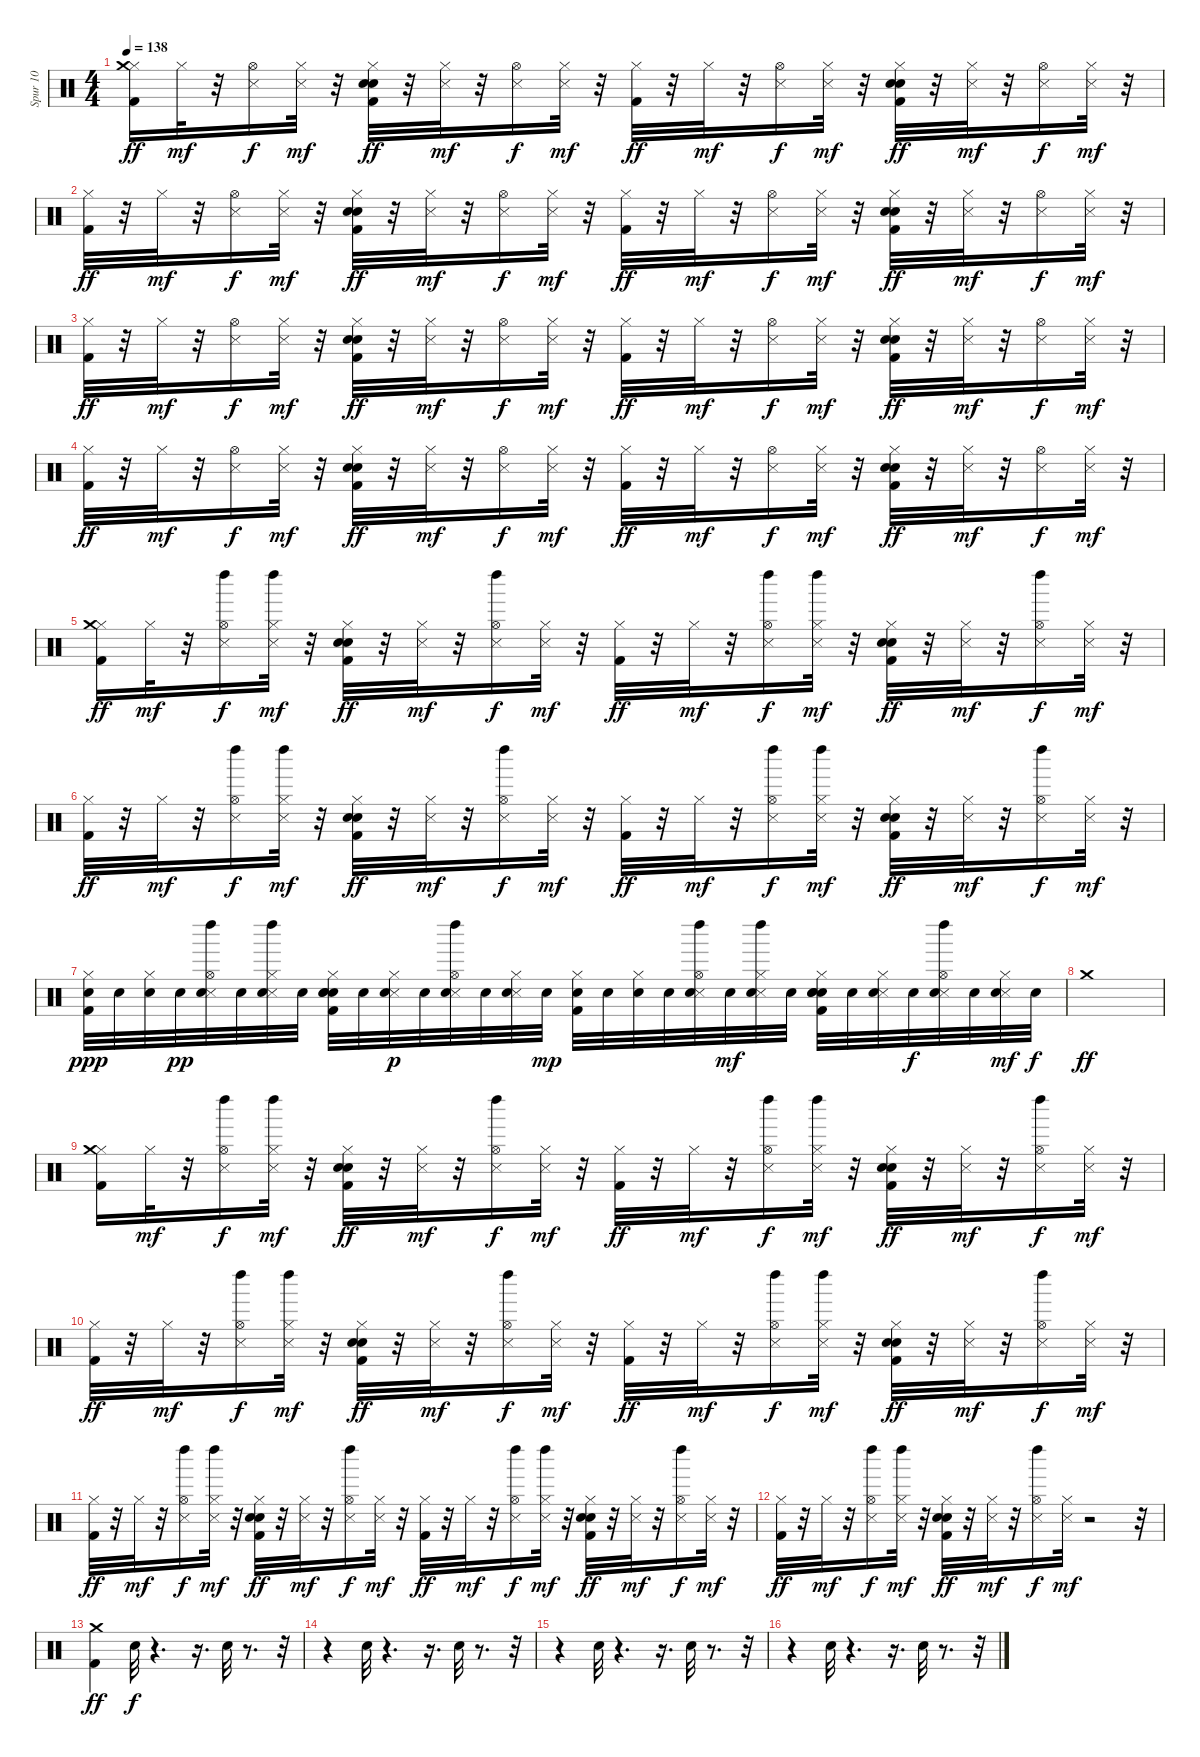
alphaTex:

\track ("Spur 10" "Spur 10") {instrument percussion}
\staff {score}
\articulation defaults
\ts (4 4)
\tempo 138
\clef neutral
\ks c
("Hi-Hat (closed)" "Crash medium (hit)" "Kick (hit) 2").16{dy ff} "Hi-Hat (closed)".32{dy mf} r.32 ("Snare (side stick) 3" "Hi-Hat (open)").16{dy f} ("Hi-Hat (closed)" "Snare (side stick) 3").32{dy mf} r.32 ("Hand Clap (hit)" "Hi-Hat (closed)" "Kick (hit) 2" "Electric Snare (hit)").32{dy ff} r.32 ("Hi-Hat (closed)" "Snare (side stick) 3").32{dy mf} r.32 ("Snare (side stick) 3" "Hi-Hat (open)").16{dy f} ("Hi-Hat (closed)" "Snare (side stick) 3").32{dy mf} r.32 ("Hi-Hat (closed)" "Kick (hit) 2").32{dy ff} r.32 "Hi-Hat (closed)".32{dy mf} r.32 ("Snare (side stick) 3" "Hi-Hat (open)").16{dy f} ("Hi-Hat (closed)" "Snare (side stick) 3").32{dy mf} r.32 ("Hand Clap (hit)" "Hi-Hat (closed)" "Kick (hit) 2" "Electric Snare (hit)").32{dy ff} r.32 ("Hi-Hat (closed)" "Snare (side stick) 3").32{dy mf} r.32 ("Snare (side stick) 3" "Hi-Hat (open)").16{dy f} ("Hi-Hat (closed)" "Snare (side stick) 3").32{dy mf} r.32 |
("Hi-Hat (closed)" "Kick (hit) 2").32{dy ff} r.32 "Hi-Hat (closed)".32{dy mf} r.32 ("Snare (side stick) 3" "Hi-Hat (open)").16{dy f} ("Hi-Hat (closed)" "Snare (side stick) 3").32{dy mf} r.32 ("Hand Clap (hit)" "Hi-Hat (closed)" "Kick (hit) 2" "Electric Snare (hit)").32{dy ff} r.32 ("Hi-Hat (closed)" "Snare (side stick) 3").32{dy mf} r.32 ("Snare (side stick) 3" "Hi-Hat (open)").16{dy f} ("Hi-Hat (closed)" "Snare (side stick) 3").32{dy mf} r.32 ("Hi-Hat (closed)" "Kick (hit) 2").32{dy ff} r.32 "Hi-Hat (closed)".32{dy mf} r.32 ("Snare (side stick) 3" "Hi-Hat (open)").16{dy f} ("Hi-Hat (closed)" "Snare (side stick) 3").32{dy mf} r.32 ("Hand Clap (hit)" "Hi-Hat (closed)" "Kick (hit) 2" "Electric Snare (hit)").32{dy ff} r.32 ("Hi-Hat (closed)" "Snare (side stick) 3").32{dy mf} r.32 ("Snare (side stick) 3" "Hi-Hat (open)").16{dy f} ("Hi-Hat (closed)" "Snare (side stick) 3").32{dy mf} r.32 |
("Hi-Hat (closed)" "Kick (hit) 2").32{dy ff} r.32 "Hi-Hat (closed)".32{dy mf} r.32 ("Snare (side stick) 3" "Hi-Hat (open)").16{dy f} ("Hi-Hat (closed)" "Snare (side stick) 3").32{dy mf} r.32 ("Hand Clap (hit)" "Hi-Hat (closed)" "Kick (hit) 2" "Electric Snare (hit)").32{dy ff} r.32 ("Hi-Hat (closed)" "Snare (side stick) 3").32{dy mf} r.32 ("Snare (side stick) 3" "Hi-Hat (open)").16{dy f} ("Hi-Hat (closed)" "Snare (side stick) 3").32{dy mf} r.32 ("Hi-Hat (closed)" "Kick (hit) 2").32{dy ff} r.32 "Hi-Hat (closed)".32{dy mf} r.32 ("Snare (side stick) 3" "Hi-Hat (open)").16{dy f} ("Hi-Hat (closed)" "Snare (side stick) 3").32{dy mf} r.32 ("Hand Clap (hit)" "Hi-Hat (closed)" "Kick (hit) 2" "Electric Snare (hit)").32{dy ff} r.32 ("Hi-Hat (closed)" "Snare (side stick) 3").32{dy mf} r.32 ("Snare (side stick) 3" "Hi-Hat (open)").16{dy f} ("Hi-Hat (closed)" "Snare (side stick) 3").32{dy mf} r.32 |
("Hi-Hat (closed)" "Kick (hit) 2").32{dy ff} r.32 "Hi-Hat (closed)".32{dy mf} r.32 ("Snare (side stick) 3" "Hi-Hat (open)").16{dy f} ("Hi-Hat (closed)" "Snare (side stick) 3").32{dy mf} r.32 ("Hand Clap (hit)" "Hi-Hat (closed)" "Kick (hit) 2" "Electric Snare (hit)").32{dy ff} r.32 ("Hi-Hat (closed)" "Snare (side stick) 3").32{dy mf} r.32 ("Snare (side stick) 3" "Hi-Hat (open)").16{dy f} ("Hi-Hat (closed)" "Snare (side stick) 3").32{dy mf} r.32 ("Hi-Hat (closed)" "Kick (hit) 2").32{dy ff} r.32 "Hi-Hat (closed)".32{dy mf} r.32 ("Snare (side stick) 3" "Hi-Hat (open)").16{dy f} ("Hi-Hat (closed)" "Snare (side stick) 3").32{dy mf} r.32 ("Hand Clap (hit)" "Hi-Hat (closed)" "Kick (hit) 2" "Electric Snare (hit)").32{dy ff} r.32 ("Hi-Hat (closed)" "Snare (side stick) 3").32{dy mf} r.32 ("Snare (side stick) 3" "Hi-Hat (open)").16{dy f} ("Hi-Hat (closed)" "Snare (side stick) 3").32{dy mf} r.32 |
("Hi-Hat (closed)" "Crash medium (hit)" "Kick (hit) 2").16{dy ff} "Hi-Hat (closed)".32{dy mf} r.32 ("Snare (side stick) 3" "Hi-Hat (open)" "Left Maraca (hit)").16{dy f} ("Hi-Hat (closed)" "Snare (side stick) 3" "Left Maraca (hit)").32{dy mf} r.32 ("Hand Clap (hit)" "Hi-Hat (closed)" "Kick (hit) 2" "Electric Snare (hit)").32{dy ff} r.32 ("Hi-Hat (closed)" "Snare (side stick) 3").32{dy mf} r.32 ("Snare (side stick) 3" "Hi-Hat (open)" "Left Maraca (hit)").16{dy f} ("Hi-Hat (closed)" "Snare (side stick) 3").32{dy mf} r.32 ("Hi-Hat (closed)" "Kick (hit) 2").32{dy ff} r.32 "Hi-Hat (closed)".32{dy mf} r.32 ("Snare (side stick) 3" "Hi-Hat (open)" "Left Maraca (hit)").16{dy f} ("Hi-Hat (closed)" "Snare (side stick) 3" "Left Maraca (hit)").32{dy mf} r.32 ("Hand Clap (hit)" "Hi-Hat (closed)" "Kick (hit) 2" "Electric Snare (hit)").32{dy ff} r.32 ("Hi-Hat (closed)" "Snare (side stick) 3").32{dy mf} r.32 ("Snare (side stick) 3" "Hi-Hat (open)" "Left Maraca (hit)").16{dy f} ("Hi-Hat (closed)" "Snare (side stick) 3").32{dy mf} r.32 |
("Hi-Hat (closed)" "Kick (hit) 2").32{dy ff} r.32 "Hi-Hat (closed)".32{dy mf} r.32 ("Snare (side stick) 3" "Hi-Hat (open)" "Left Maraca (hit)").16{dy f} ("Hi-Hat (closed)" "Snare (side stick) 3" "Left Maraca (hit)").32{dy mf} r.32 ("Hand Clap (hit)" "Hi-Hat (closed)" "Kick (hit) 2" "Electric Snare (hit)").32{dy ff} r.32 ("Hi-Hat (closed)" "Snare (side stick) 3").32{dy mf} r.32 ("Snare (side stick) 3" "Hi-Hat (open)" "Left Maraca (hit)").16{dy f} ("Hi-Hat (closed)" "Snare (side stick) 3").32{dy mf} r.32 ("Hi-Hat (closed)" "Kick (hit) 2").32{dy ff} r.32 "Hi-Hat (closed)".32{dy mf} r.32 ("Snare (side stick) 3" "Hi-Hat (open)" "Left Maraca (hit)").16{dy f} ("Hi-Hat (closed)" "Snare (side stick) 3" "Left Maraca (hit)").32{dy mf} r.32 ("Hand Clap (hit)" "Hi-Hat (closed)" "Kick (hit) 2" "Electric Snare (hit)").32{dy ff} r.32 ("Hi-Hat (closed)" "Snare (side stick) 3").32{dy mf} r.32 ("Snare (side stick) 3" "Hi-Hat (open)" "Left Maraca (hit)").16{dy f} ("Hi-Hat (closed)" "Snare (side stick) 3").32{dy mf} r.32 |
("Hi-Hat (closed)" "Kick (hit) 2" "Electric Snare (hit)").32{dy ppp} "Electric Snare (hit)".32 ("Hi-Hat (closed)" "Electric Snare (hit)").32 "Electric Snare (hit)".32{dy pp} ("Snare (side stick) 3" "Electric Snare (hit)" "Hi-Hat (open)" "Left Maraca (hit)").32 "Electric Snare (hit)".32 ("Hi-Hat (closed)" "Snare (side stick) 3" "Electric Snare (hit)" "Left Maraca (hit)").32 "Electric Snare (hit)".32 ("Hand Clap (hit)" "Hi-Hat (closed)" "Kick (hit) 2" "Electric Snare (hit)" "Electric Snare (hit)").32 "Electric Snare (hit)".32 ("Hi-Hat (closed)" "Snare (side stick) 3" "Electric Snare (hit)").32{dy p} "Electric Snare (hit)".32 ("Snare (side stick) 3" "Electric Snare (hit)" "Hi-Hat (open)" "Left Maraca (hit)").32 "Electric Snare (hit)".32 ("Hi-Hat (closed)" "Snare (side stick) 3" "Electric Snare (hit)").32 "Electric Snare (hit)".32{dy mp} ("Hi-Hat (closed)" "Kick (hit) 2" "Electric Snare (hit)").32 "Electric Snare (hit)".32 ("Hi-Hat (closed)" "Electric Snare (hit)").32 "Electric Snare (hit)".32 ("Snare (side stick) 3" "Electric Snare (hit)" "Hi-Hat (open)" "Left Maraca (hit)").32 "Electric Snare (hit)".32{dy mf} ("Hi-Hat (closed)" "Snare (side stick) 3" "Electric Snare (hit)" "Left Maraca (hit)").32 "Electric Snare (hit)".32 ("Hand Clap (hit)" "Hi-Hat (closed)" "Kick (hit) 2" "Electric Snare (hit)" "Electric Snare (hit)").32 "Electric Snare (hit)".32 ("Hi-Hat (closed)" "Snare (side stick) 3" "Electric Snare (hit)").32 "Electric Snare (hit)".32{dy f} ("Snare (side stick) 3" "Electric Snare (hit)" "Hi-Hat (open)" "Left Maraca (hit)").32 "Electric Snare (hit)".32 ("Hi-Hat (closed)" "Snare (side stick) 3" "Electric Snare (hit)").32{dy mf} "Electric Snare (hit)".32{dy f} |
"Crash medium (hit)".1{dy ff} |
("Hi-Hat (closed)" "Crash medium (hit)" "Kick (hit) 2").16 "Hi-Hat (closed)".32{dy mf} r.32 ("Snare (side stick) 3" "Hi-Hat (open)" "Left Maraca (hit)").16{dy f} ("Hi-Hat (closed)" "Snare (side stick) 3" "Left Maraca (hit)").32{dy mf} r.32 ("Hand Clap (hit)" "Hi-Hat (closed)" "Kick (hit) 2" "Electric Snare (hit)").32{dy ff} r.32 ("Hi-Hat (closed)" "Snare (side stick) 3").32{dy mf} r.32 ("Snare (side stick) 3" "Hi-Hat (open)" "Left Maraca (hit)").16{dy f} ("Hi-Hat (closed)" "Snare (side stick) 3").32{dy mf} r.32 ("Hi-Hat (closed)" "Kick (hit) 2").32{dy ff} r.32 "Hi-Hat (closed)".32{dy mf} r.32 ("Snare (side stick) 3" "Hi-Hat (open)" "Left Maraca (hit)").16{dy f} ("Hi-Hat (closed)" "Snare (side stick) 3" "Left Maraca (hit)").32{dy mf} r.32 ("Hand Clap (hit)" "Hi-Hat (closed)" "Kick (hit) 2" "Electric Snare (hit)").32{dy ff} r.32 ("Hi-Hat (closed)" "Snare (side stick) 3").32{dy mf} r.32 ("Snare (side stick) 3" "Hi-Hat (open)" "Left Maraca (hit)").16{dy f} ("Hi-Hat (closed)" "Snare (side stick) 3").32{dy mf} r.32 |
("Hi-Hat (closed)" "Kick (hit) 2").32{dy ff} r.32 "Hi-Hat (closed)".32{dy mf} r.32 ("Snare (side stick) 3" "Hi-Hat (open)" "Left Maraca (hit)").16{dy f} ("Hi-Hat (closed)" "Snare (side stick) 3" "Left Maraca (hit)").32{dy mf} r.32 ("Hand Clap (hit)" "Hi-Hat (closed)" "Kick (hit) 2" "Electric Snare (hit)").32{dy ff} r.32 ("Hi-Hat (closed)" "Snare (side stick) 3").32{dy mf} r.32 ("Snare (side stick) 3" "Hi-Hat (open)" "Left Maraca (hit)").16{dy f} ("Hi-Hat (closed)" "Snare (side stick) 3").32{dy mf} r.32 ("Hi-Hat (closed)" "Kick (hit) 2").32{dy ff} r.32 "Hi-Hat (closed)".32{dy mf} r.32 ("Snare (side stick) 3" "Hi-Hat (open)" "Left Maraca (hit)").16{dy f} ("Hi-Hat (closed)" "Snare (side stick) 3" "Left Maraca (hit)").32{dy mf} r.32 ("Hand Clap (hit)" "Hi-Hat (closed)" "Kick (hit) 2" "Electric Snare (hit)").32{dy ff} r.32 ("Hi-Hat (closed)" "Snare (side stick) 3").32{dy mf} r.32 ("Snare (side stick) 3" "Hi-Hat (open)" "Left Maraca (hit)").16{dy f} ("Hi-Hat (closed)" "Snare (side stick) 3").32{dy mf} r.32 |
("Hi-Hat (closed)" "Kick (hit) 2").32{dy ff} r.32 "Hi-Hat (closed)".32{dy mf} r.32 ("Snare (side stick) 3" "Hi-Hat (open)" "Left Maraca (hit)").16{dy f} ("Hi-Hat (closed)" "Snare (side stick) 3" "Left Maraca (hit)").32{dy mf} r.32 ("Hand Clap (hit)" "Hi-Hat (closed)" "Kick (hit) 2" "Electric Snare (hit)").32{dy ff} r.32 ("Hi-Hat (closed)" "Snare (side stick) 3").32{dy mf} r.32 ("Snare (side stick) 3" "Hi-Hat (open)" "Left Maraca (hit)").16{dy f} ("Hi-Hat (closed)" "Snare (side stick) 3").32{dy mf} r.32 ("Hi-Hat (closed)" "Kick (hit) 2").32{dy ff} r.32 "Hi-Hat (closed)".32{dy mf} r.32 ("Snare (side stick) 3" "Hi-Hat (open)" "Left Maraca (hit)").16{dy f} ("Hi-Hat (closed)" "Snare (side stick) 3" "Left Maraca (hit)").32{dy mf} r.32 ("Hand Clap (hit)" "Hi-Hat (closed)" "Kick (hit) 2" "Electric Snare (hit)").32{dy ff} r.32 ("Hi-Hat (closed)" "Snare (side stick) 3").32{dy mf} r.32 ("Snare (side stick) 3" "Hi-Hat (open)" "Left Maraca (hit)").16{dy f} ("Hi-Hat (closed)" "Snare (side stick) 3").32{dy mf} r.32 |
("Hi-Hat (closed)" "Kick (hit) 2").32{dy ff} r.32 "Hi-Hat (closed)".32{dy mf} r.32 ("Snare (side stick) 3" "Hi-Hat (open)" "Left Maraca (hit)").16{dy f} ("Hi-Hat (closed)" "Snare (side stick) 3" "Left Maraca (hit)").32{dy mf} r.32 ("Hand Clap (hit)" "Hi-Hat (closed)" "Kick (hit) 2" "Electric Snare (hit)").32{dy ff} r.32 ("Hi-Hat (closed)" "Snare (side stick) 3").32{dy mf} r.32 ("Snare (side stick) 3" "Hi-Hat (open)" "Left Maraca (hit)").16{dy f} ("Hi-Hat (closed)" "Snare (side stick) 3").32{dy mf} r.2 r.32 |
("Crash medium (hit)" "Kick (hit) 2").4{dy ff} "Hand Clap (hit)".32{dy f} r.4{d} r.16{d} "Hand Clap (hit)".32 r.8{d} r.32 |
r.4 "Hand Clap (hit)".32 r.4{d} r.16{d} "Hand Clap (hit)".32 r.8{d} r.32 |
r.4 "Hand Clap (hit)".32 r.4{d} r.16{d} "Hand Clap (hit)".32 r.8{d} r.32 |
r.4 "Hand Clap (hit)".32 r.4{d} r.16{d} "Hand Clap (hit)".32 r.8{d} r.32
